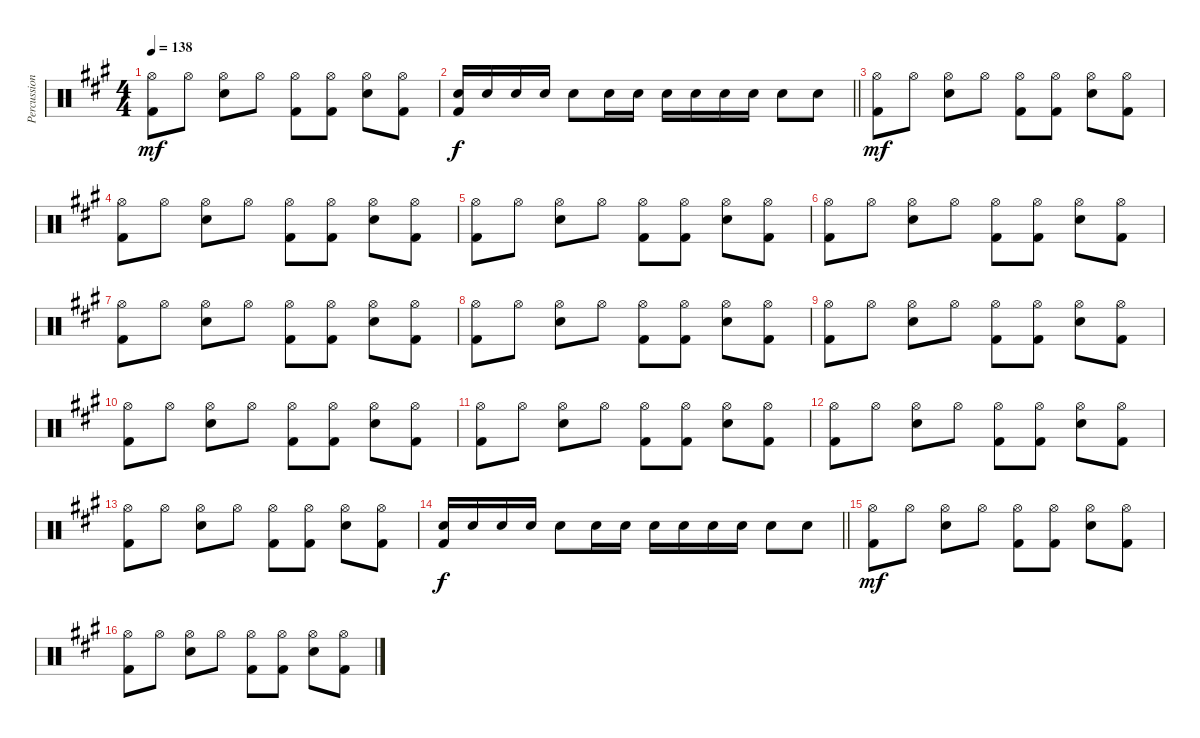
\track ("Percussion" "Percussion") {instrument percussion}
\staff {score}
\articulation defaults
\ts (4 4)
\tempo 138
\clef neutral
\ks a
("Hi-Hat (open)" "Kick (hit) 2").8{dy mf} "Hi-Hat (open)".8 ("Hi-Hat (open)" "Snare (hit) 2").8 "Hi-Hat (open)".8 ("Hi-Hat (open)" "Kick (hit) 2").8 ("Hi-Hat (open)" "Kick (hit) 2").8 ("Hi-Hat (open)" "Snare (hit) 2").8 ("Hi-Hat (open)" "Kick (hit) 2").8 |
\barLineRight lightlight
("Snare (hit) 2" "Kick (hit) 2").16{dy f} "Snare (hit) 2".16 "Snare (hit) 2".16 "Snare (hit) 2".16 "Snare (hit) 2".8 "Snare (hit) 2".16 "Snare (hit) 2".16 "Snare (hit) 2".16 "Snare (hit) 2".16 "Snare (hit) 2".16 "Snare (hit) 2".16 "Snare (hit) 2".8 "Snare (hit) 2".8 |
("Hi-Hat (open)" "Kick (hit) 2").8{dy mf} "Hi-Hat (open)".8 ("Hi-Hat (open)" "Snare (hit) 2").8 "Hi-Hat (open)".8 ("Hi-Hat (open)" "Kick (hit) 2").8 ("Hi-Hat (open)" "Kick (hit) 2").8 ("Hi-Hat (open)" "Snare (hit) 2").8 ("Hi-Hat (open)" "Kick (hit) 2").8 |
("Hi-Hat (open)" "Kick (hit) 2").8 "Hi-Hat (open)".8 ("Hi-Hat (open)" "Snare (hit) 2").8 "Hi-Hat (open)".8 ("Hi-Hat (open)" "Kick (hit) 2").8 ("Hi-Hat (open)" "Kick (hit) 2").8 ("Hi-Hat (open)" "Snare (hit) 2").8 ("Hi-Hat (open)" "Kick (hit) 2").8 |
("Hi-Hat (open)" "Kick (hit) 2").8 "Hi-Hat (open)".8 ("Hi-Hat (open)" "Snare (hit) 2").8 "Hi-Hat (open)".8 ("Hi-Hat (open)" "Kick (hit) 2").8 ("Hi-Hat (open)" "Kick (hit) 2").8 ("Hi-Hat (open)" "Snare (hit) 2").8 ("Hi-Hat (open)" "Kick (hit) 2").8 |
("Hi-Hat (open)" "Kick (hit) 2").8 "Hi-Hat (open)".8 ("Hi-Hat (open)" "Snare (hit) 2").8 "Hi-Hat (open)".8 ("Hi-Hat (open)" "Kick (hit) 2").8 ("Hi-Hat (open)" "Kick (hit) 2").8 ("Hi-Hat (open)" "Snare (hit) 2").8 ("Hi-Hat (open)" "Kick (hit) 2").8 |
("Hi-Hat (open)" "Kick (hit) 2").8 "Hi-Hat (open)".8 ("Hi-Hat (open)" "Snare (hit) 2").8 "Hi-Hat (open)".8 ("Hi-Hat (open)" "Kick (hit) 2").8 ("Hi-Hat (open)" "Kick (hit) 2").8 ("Hi-Hat (open)" "Snare (hit) 2").8 ("Hi-Hat (open)" "Kick (hit) 2").8 |
("Hi-Hat (open)" "Kick (hit) 2").8 "Hi-Hat (open)".8 ("Hi-Hat (open)" "Snare (hit) 2").8 "Hi-Hat (open)".8 ("Hi-Hat (open)" "Kick (hit) 2").8 ("Hi-Hat (open)" "Kick (hit) 2").8 ("Hi-Hat (open)" "Snare (hit) 2").8 ("Hi-Hat (open)" "Kick (hit) 2").8 |
("Hi-Hat (open)" "Kick (hit) 2").8 "Hi-Hat (open)".8 ("Hi-Hat (open)" "Snare (hit) 2").8 "Hi-Hat (open)".8 ("Hi-Hat (open)" "Kick (hit) 2").8 ("Hi-Hat (open)" "Kick (hit) 2").8 ("Hi-Hat (open)" "Snare (hit) 2").8 ("Hi-Hat (open)" "Kick (hit) 2").8 |
("Hi-Hat (open)" "Kick (hit) 2").8 "Hi-Hat (open)".8 ("Hi-Hat (open)" "Snare (hit) 2").8 "Hi-Hat (open)".8 ("Hi-Hat (open)" "Kick (hit) 2").8 ("Hi-Hat (open)" "Kick (hit) 2").8 ("Hi-Hat (open)" "Snare (hit) 2").8 ("Hi-Hat (open)" "Kick (hit) 2").8 |
("Hi-Hat (open)" "Kick (hit) 2").8 "Hi-Hat (open)".8 ("Hi-Hat (open)" "Snare (hit) 2").8 "Hi-Hat (open)".8 ("Hi-Hat (open)" "Kick (hit) 2").8 ("Hi-Hat (open)" "Kick (hit) 2").8 ("Hi-Hat (open)" "Snare (hit) 2").8 ("Hi-Hat (open)" "Kick (hit) 2").8 |
("Hi-Hat (open)" "Kick (hit) 2").8 "Hi-Hat (open)".8 ("Hi-Hat (open)" "Snare (hit) 2").8 "Hi-Hat (open)".8 ("Hi-Hat (open)" "Kick (hit) 2").8 ("Hi-Hat (open)" "Kick (hit) 2").8 ("Hi-Hat (open)" "Snare (hit) 2").8 ("Hi-Hat (open)" "Kick (hit) 2").8 |
("Hi-Hat (open)" "Kick (hit) 2").8 "Hi-Hat (open)".8 ("Hi-Hat (open)" "Snare (hit) 2").8 "Hi-Hat (open)".8 ("Hi-Hat (open)" "Kick (hit) 2").8 ("Hi-Hat (open)" "Kick (hit) 2").8 ("Hi-Hat (open)" "Snare (hit) 2").8 ("Hi-Hat (open)" "Kick (hit) 2").8 |
\barLineRight lightlight
("Snare (hit) 2" "Kick (hit) 2").16{dy f} "Snare (hit) 2".16 "Snare (hit) 2".16 "Snare (hit) 2".16 "Snare (hit) 2".8 "Snare (hit) 2".16 "Snare (hit) 2".16 "Snare (hit) 2".16 "Snare (hit) 2".16 "Snare (hit) 2".16 "Snare (hit) 2".16 "Snare (hit) 2".8 "Snare (hit) 2".8 |
("Hi-Hat (open)" "Kick (hit) 2").8{dy mf} "Hi-Hat (open)".8 ("Hi-Hat (open)" "Snare (hit) 2").8 "Hi-Hat (open)".8 ("Hi-Hat (open)" "Kick (hit) 2").8 ("Hi-Hat (open)" "Kick (hit) 2").8 ("Hi-Hat (open)" "Snare (hit) 2").8 ("Hi-Hat (open)" "Kick (hit) 2").8 |
("Hi-Hat (open)" "Kick (hit) 2").8 "Hi-Hat (open)".8 ("Hi-Hat (open)" "Snare (hit) 2").8 "Hi-Hat (open)".8 ("Hi-Hat (open)" "Kick (hit) 2").8 ("Hi-Hat (open)" "Kick (hit) 2").8 ("Hi-Hat (open)" "Snare (hit) 2").8 ("Hi-Hat (open)" "Kick (hit) 2").8
